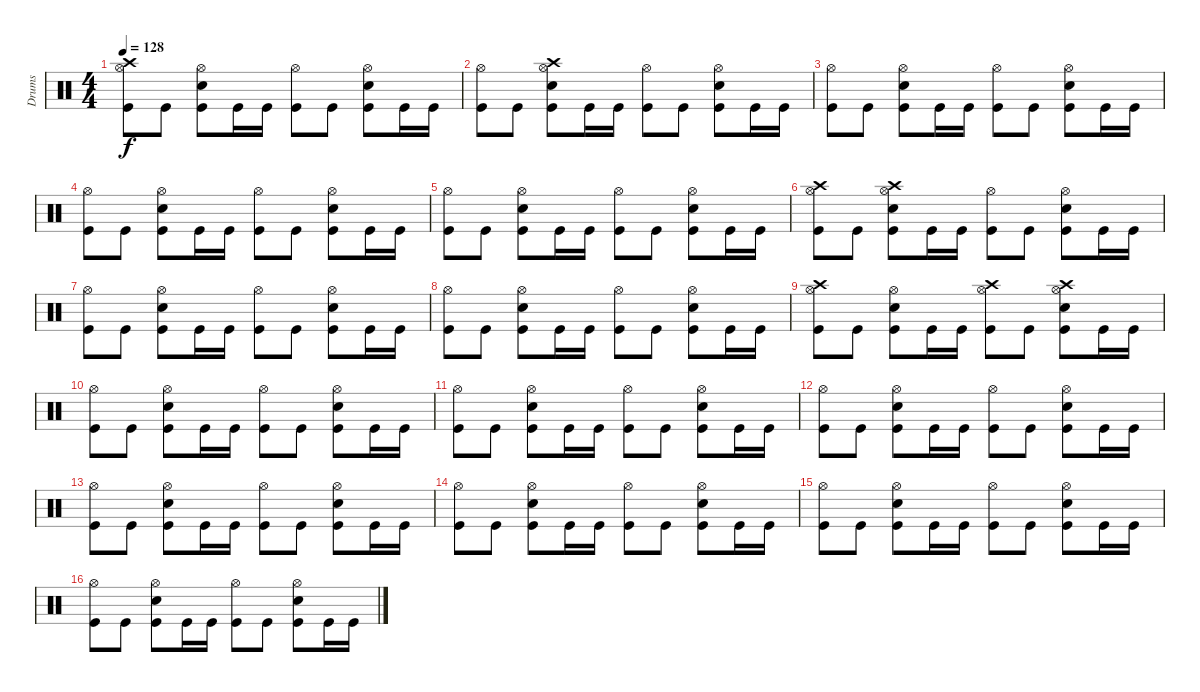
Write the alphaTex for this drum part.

\track ("Drums" "Drums") {instrument percussion}
\staff {score}
\articulation defaults
\ts (4 4)
\tempo 128
\clef neutral
\ks c
("Crash high (hit)" "Hi-Hat (open)" "Kick (hit)").8{dy f} "Kick (hit)".8 ("Hi-Hat (open)" "Snare (hit) 2" "Kick (hit)").8 "Kick (hit)".16 "Kick (hit)".16 ("Hi-Hat (open)" "Kick (hit)").8 "Kick (hit)".8 ("Hi-Hat (open)" "Snare (hit) 2" "Kick (hit)").8 "Kick (hit)".16 "Kick (hit)".16 |
("Hi-Hat (open)" "Kick (hit)").8 "Kick (hit)".8 ("Crash high (hit)" "Hi-Hat (open)" "Snare (hit) 2" "Kick (hit)").8 "Kick (hit)".16 "Kick (hit)".16 ("Hi-Hat (open)" "Kick (hit)").8 "Kick (hit)".8 ("Hi-Hat (open)" "Snare (hit) 2" "Kick (hit)").8 "Kick (hit)".16 "Kick (hit)".16 |
("Hi-Hat (open)" "Kick (hit)").8 "Kick (hit)".8 ("Hi-Hat (open)" "Snare (hit) 2" "Kick (hit)").8 "Kick (hit)".16 "Kick (hit)".16 ("Hi-Hat (open)" "Kick (hit)").8 "Kick (hit)".8 ("Hi-Hat (open)" "Snare (hit) 2" "Kick (hit)").8 "Kick (hit)".16 "Kick (hit)".16 |
("Hi-Hat (open)" "Kick (hit)").8 "Kick (hit)".8 ("Hi-Hat (open)" "Snare (hit) 2" "Kick (hit)").8 "Kick (hit)".16 "Kick (hit)".16 ("Hi-Hat (open)" "Kick (hit)").8 "Kick (hit)".8 ("Hi-Hat (open)" "Snare (hit) 2" "Kick (hit)").8 "Kick (hit)".16 "Kick (hit)".16 |
("Hi-Hat (open)" "Kick (hit)").8 "Kick (hit)".8 ("Hi-Hat (open)" "Snare (hit) 2" "Kick (hit)").8 "Kick (hit)".16 "Kick (hit)".16 ("Hi-Hat (open)" "Kick (hit)").8 "Kick (hit)".8 ("Hi-Hat (open)" "Snare (hit) 2" "Kick (hit)").8 "Kick (hit)".16 "Kick (hit)".16 |
("Crash high (hit)" "Hi-Hat (open)" "Kick (hit)").8 "Kick (hit)".8 ("Crash high (hit)" "Hi-Hat (open)" "Snare (hit) 2" "Kick (hit)").8 "Kick (hit)".16 "Kick (hit)".16 ("Hi-Hat (open)" "Kick (hit)").8 "Kick (hit)".8 ("Hi-Hat (open)" "Snare (hit) 2" "Kick (hit)").8 "Kick (hit)".16 "Kick (hit)".16 |
("Hi-Hat (open)" "Kick (hit)").8 "Kick (hit)".8 ("Hi-Hat (open)" "Snare (hit) 2" "Kick (hit)").8 "Kick (hit)".16 "Kick (hit)".16 ("Hi-Hat (open)" "Kick (hit)").8 "Kick (hit)".8 ("Hi-Hat (open)" "Snare (hit) 2" "Kick (hit)").8 "Kick (hit)".16 "Kick (hit)".16 |
("Hi-Hat (open)" "Kick (hit)").8 "Kick (hit)".8 ("Hi-Hat (open)" "Snare (hit) 2" "Kick (hit)").8 "Kick (hit)".16 "Kick (hit)".16 ("Hi-Hat (open)" "Kick (hit)").8 "Kick (hit)".8 ("Hi-Hat (open)" "Snare (hit) 2" "Kick (hit)").8 "Kick (hit)".16 "Kick (hit)".16 |
("Crash high (hit)" "Hi-Hat (open)" "Kick (hit)").8 "Kick (hit)".8 ("Hi-Hat (open)" "Snare (hit) 2" "Kick (hit)").8 "Kick (hit)".16 "Kick (hit)".16 ("Crash high (hit)" "Hi-Hat (open)" "Kick (hit)").8 "Kick (hit)".8 ("Crash high (hit)" "Hi-Hat (open)" "Snare (hit) 2" "Kick (hit)").8 "Kick (hit)".16 "Kick (hit)".16 |
\section ("" "")
("Hi-Hat (open)" "Kick (hit)").8 "Kick (hit)".8 ("Hi-Hat (open)" "Snare (hit) 2" "Kick (hit)").8 "Kick (hit)".16 "Kick (hit)".16 ("Hi-Hat (open)" "Kick (hit)").8 "Kick (hit)".8 ("Hi-Hat (open)" "Snare (hit) 2" "Kick (hit)").8 "Kick (hit)".16 "Kick (hit)".16 |
("Hi-Hat (open)" "Kick (hit)").8 "Kick (hit)".8 ("Hi-Hat (open)" "Snare (hit) 2" "Kick (hit)").8 "Kick (hit)".16 "Kick (hit)".16 ("Hi-Hat (open)" "Kick (hit)").8 "Kick (hit)".8 ("Hi-Hat (open)" "Snare (hit) 2" "Kick (hit)").8 "Kick (hit)".16 "Kick (hit)".16 |
("Hi-Hat (open)" "Kick (hit)").8 "Kick (hit)".8 ("Hi-Hat (open)" "Snare (hit) 2" "Kick (hit)").8 "Kick (hit)".16 "Kick (hit)".16 ("Hi-Hat (open)" "Kick (hit)").8 "Kick (hit)".8 ("Hi-Hat (open)" "Snare (hit) 2" "Kick (hit)").8 "Kick (hit)".16 "Kick (hit)".16 |
("Hi-Hat (open)" "Kick (hit)").8 "Kick (hit)".8 ("Hi-Hat (open)" "Snare (hit) 2" "Kick (hit)").8 "Kick (hit)".16 "Kick (hit)".16 ("Hi-Hat (open)" "Kick (hit)").8 "Kick (hit)".8 ("Hi-Hat (open)" "Snare (hit) 2" "Kick (hit)").8 "Kick (hit)".16 "Kick (hit)".16 |
("Hi-Hat (open)" "Kick (hit)").8 "Kick (hit)".8 ("Hi-Hat (open)" "Snare (hit) 2" "Kick (hit)").8 "Kick (hit)".16 "Kick (hit)".16 ("Hi-Hat (open)" "Kick (hit)").8 "Kick (hit)".8 ("Hi-Hat (open)" "Snare (hit) 2" "Kick (hit)").8 "Kick (hit)".16 "Kick (hit)".16 |
("Hi-Hat (open)" "Kick (hit)").8 "Kick (hit)".8 ("Hi-Hat (open)" "Snare (hit) 2" "Kick (hit)").8 "Kick (hit)".16 "Kick (hit)".16 ("Hi-Hat (open)" "Kick (hit)").8 "Kick (hit)".8 ("Hi-Hat (open)" "Snare (hit) 2" "Kick (hit)").8 "Kick (hit)".16 "Kick (hit)".16 |
("Hi-Hat (open)" "Kick (hit)").8 "Kick (hit)".8 ("Hi-Hat (open)" "Snare (hit) 2" "Kick (hit)").8 "Kick (hit)".16 "Kick (hit)".16 ("Hi-Hat (open)" "Kick (hit)").8 "Kick (hit)".8 ("Hi-Hat (open)" "Snare (hit) 2" "Kick (hit)").8 "Kick (hit)".16 "Kick (hit)".16
